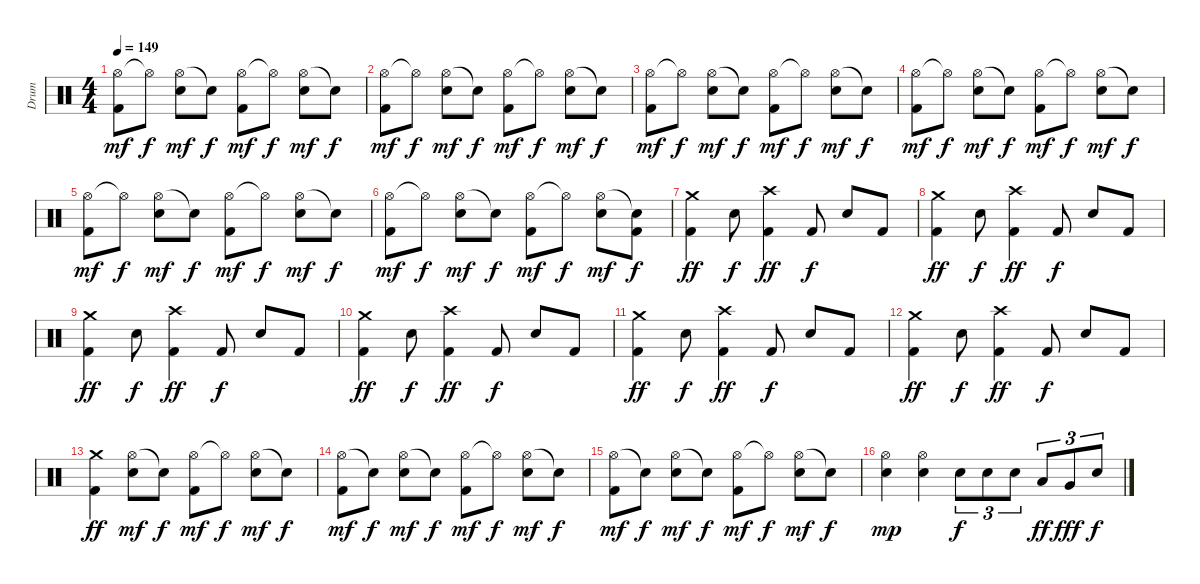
\track ("Drum" "Drum") {instrument percussion}
\staff {score}
\articulation defaults
\ts (4 4)
\tempo 149
\clef neutral
\ks c
("Hi-Hat (open)" "Kick (hit) 2").8{dy mf} "Hi-Hat (open)"{t}.8{dy f} ("Hi-Hat (open)" "Snare (hit) 2").8{dy mf} "Snare (hit)"{t}.8{dy f} ("Hi-Hat (open)" "Kick (hit) 2").8{dy mf} "Hi-Hat (open)"{t}.8{dy f} ("Hi-Hat (open)" "Snare (hit) 2").8{dy mf} "Snare (hit)"{t}.8{dy f} |
("Hi-Hat (open)" "Kick (hit) 2").8{dy mf} "Hi-Hat (open)"{t}.8{dy f} ("Hi-Hat (open)" "Snare (hit) 2").8{dy mf} "Snare (hit)"{t}.8{dy f} ("Hi-Hat (open)" "Kick (hit) 2").8{dy mf} "Hi-Hat (open)"{t}.8{dy f} ("Hi-Hat (open)" "Snare (hit) 2").8{dy mf} "Snare (hit)"{t}.8{dy f} |
("Hi-Hat (open)" "Kick (hit) 2").8{dy mf} "Hi-Hat (open)"{t}.8{dy f} ("Hi-Hat (open)" "Snare (hit) 2").8{dy mf} "Snare (hit)"{t}.8{dy f} ("Hi-Hat (open)" "Kick (hit) 2").8{dy mf} "Hi-Hat (open)"{t}.8{dy f} ("Hi-Hat (open)" "Snare (hit) 2").8{dy mf} "Snare (hit)"{t}.8{dy f} |
("Hi-Hat (open)" "Kick (hit) 2").8{dy mf} "Hi-Hat (open)"{t}.8{dy f} ("Hi-Hat (open)" "Snare (hit) 2").8{dy mf} "Snare (hit)"{t}.8{dy f} ("Hi-Hat (open)" "Kick (hit) 2").8{dy mf} "Hi-Hat (open)"{t}.8{dy f} ("Hi-Hat (open)" "Snare (hit) 2").8{dy mf} "Snare (hit)"{t}.8{dy f} |
("Hi-Hat (open)" "Kick (hit) 2").8{dy mf} "Hi-Hat (open)"{t}.8{dy f} ("Hi-Hat (open)" "Snare (hit) 2").8{dy mf} "Snare (hit)"{t}.8{dy f} ("Hi-Hat (open)" "Kick (hit) 2").8{dy mf} "Hi-Hat (open)"{t}.8{dy f} ("Hi-Hat (open)" "Snare (hit) 2").8{dy mf} "Snare (hit)"{t}.8{dy f} |
("Hi-Hat (open)" "Kick (hit) 2").8{dy mf} "Hi-Hat (open)"{t}.8{dy f} ("Hi-Hat (open)" "Snare (hit) 2").8{dy mf} "Snare (hit)"{t}.8{dy f} ("Hi-Hat (open)" "Kick (hit) 2").8{dy mf} "Hi-Hat (open)"{t}.8{dy f} ("Hi-Hat (open)" "Snare (hit) 2").8{dy mf} ("Snare (hit)"{t} "Kick (hit) 2").8{dy f} |
("Crash medium (hit)" "Kick (hit) 2").4{dy ff} "Snare (hit) 2".8{dy f} ("Crash high (hit)" "Kick (hit) 2").4{dy ff} "Kick (hit) 2".8{dy f} "Snare (hit) 2".8 "Kick (hit) 2".8 |
("Crash medium (hit)" "Kick (hit) 2").4{dy ff} "Snare (hit) 2".8{dy f} ("Crash high (hit)" "Kick (hit) 2").4{dy ff} "Kick (hit) 2".8{dy f} "Snare (hit) 2".8 "Kick (hit) 2".8 |
("Crash medium (hit)" "Kick (hit) 2").4{dy ff} "Snare (hit) 2".8{dy f} ("Crash high (hit)" "Kick (hit) 2").4{dy ff} "Kick (hit) 2".8{dy f} "Snare (hit) 2".8 "Kick (hit) 2".8 |
("Crash medium (hit)" "Kick (hit) 2").4{dy ff} "Snare (hit) 2".8{dy f} ("Crash high (hit)" "Kick (hit) 2").4{dy ff} "Kick (hit) 2".8{dy f} "Snare (hit) 2".8 "Kick (hit) 2".8 |
("Crash medium (hit)" "Kick (hit) 2").4{dy ff} "Snare (hit) 2".8{dy f} ("Crash high (hit)" "Kick (hit) 2").4{dy ff} "Kick (hit) 2".8{dy f} "Snare (hit) 2".8 "Kick (hit) 2".8 |
("Crash medium (hit)" "Kick (hit) 2").4{dy ff} "Snare (hit) 2".8{dy f} ("Crash high (hit)" "Kick (hit) 2").4{dy ff} "Kick (hit) 2".8{dy f} "Snare (hit) 2".8 "Kick (hit) 2".8 |
("Crash medium (hit)" "Kick (hit) 2").4{dy ff} ("Hi-Hat (open)" "Snare (hit) 2").8{dy mf} "Snare (hit)"{t}.8{dy f} ("Hi-Hat (open)" "Kick (hit) 2").8{dy mf} "Hi-Hat (open)"{t}.8{dy f} ("Hi-Hat (open)" "Snare (hit) 2").8{dy mf} "Snare (hit)"{t}.8{dy f} |
("Hi-Hat (open)" "Kick (hit) 2").8{dy mf} "Snare (hit)"{t}.8{dy f} ("Hi-Hat (open)" "Snare (hit) 2").8{dy mf} "Snare (hit)"{t}.8{dy f} ("Hi-Hat (open)" "Kick (hit) 2").8{dy mf} "Hi-Hat (open)"{t}.8{dy f} ("Hi-Hat (open)" "Snare (hit) 2").8{dy mf} "Snare (hit)"{t}.8{dy f} |
("Hi-Hat (open)" "Kick (hit) 2").8{dy mf} "Snare (hit)"{t}.8{dy f} ("Hi-Hat (open)" "Snare (hit) 2").8{dy mf} "Snare (hit)"{t}.8{dy f} ("Hi-Hat (open)" "Kick (hit) 2").8{dy mf} "Hi-Hat (open)"{t}.8{dy f} ("Hi-Hat (open)" "Snare (hit) 2").8{dy mf} "Snare (hit)"{t}.8{dy f} |
("Hi-Hat (open)" "Snare (hit) 2").4{dy mp} ("Hi-Hat (open)" "Snare (hit) 2").4 "Snare (hit) 2".8{tu (3 2) dy f} "Snare (hit) 2".8{tu (3 2)} "Snare (hit) 2".8{tu (3 2)} "Low Tom (hit)".8{tu (3 2) dy ff} "Very Low Tom (hit)".8{tu (3 2) dy fff} "Snare (hit) 2".8{tu (3 2) dy f}
